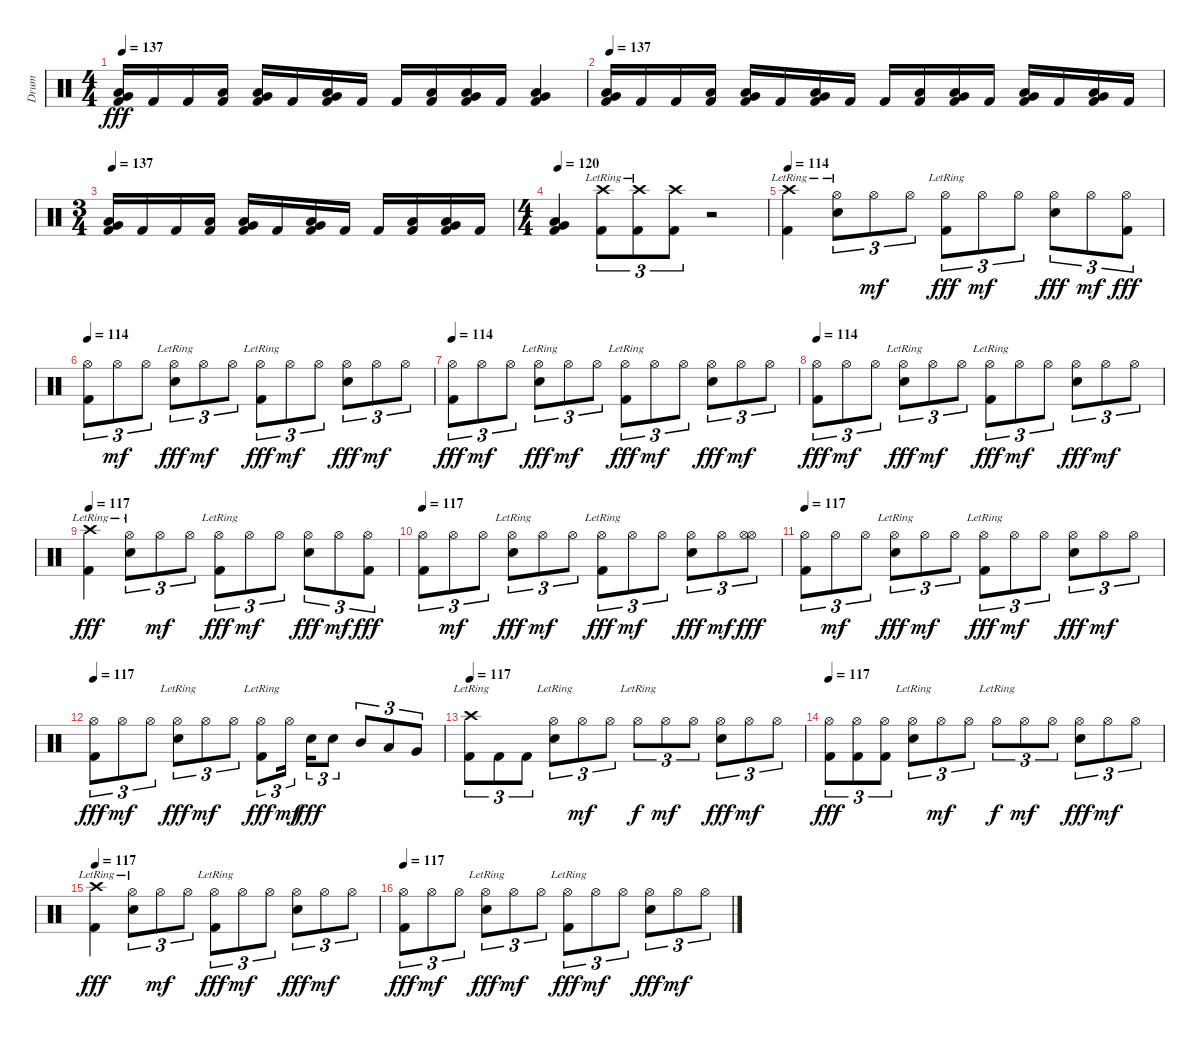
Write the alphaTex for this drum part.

\track ("Drum" "Drum") {instrument percussion}
\staff {score}
\articulation defaults
\ts (4 4)
\tempo 137
\clef neutral
\ks c
("Very Low Tom (hit)" "Low Tom (hit)" "Kick (hit) 2").16{dy fff} "Kick (hit) 2".16 "Kick (hit) 2".16 ("Low Tom (hit)" "Kick (hit) 2").16 ("Very Low Tom (hit)" "Low Tom (hit)" "Kick (hit) 2").16 "Kick (hit) 2".16 ("Very Low Tom (hit)" "Low Tom (hit)" "Kick (hit) 2").16 "Kick (hit) 2".16 "Kick (hit) 2".16 ("Low Tom (hit)" "Kick (hit) 2").16 ("Very Low Tom (hit)" "Low Tom (hit)" "Kick (hit) 2").16 "Kick (hit) 2".16 ("Very Low Tom (hit)" "Low Tom (hit)" "Kick (hit) 2").4 |
\tempo 137
("Very Low Tom (hit)" "Low Tom (hit)" "Kick (hit) 2").16 "Kick (hit) 2".16 "Kick (hit) 2".16 ("Low Tom (hit)" "Kick (hit) 2").16 ("Very Low Tom (hit)" "Low Tom (hit)" "Kick (hit) 2").16 "Kick (hit) 2".16 ("Very Low Tom (hit)" "Low Tom (hit)" "Kick (hit) 2").16 "Kick (hit) 2".16 "Kick (hit) 2".16 ("Low Tom (hit)" "Kick (hit) 2").16 ("Very Low Tom (hit)" "Low Tom (hit)" "Kick (hit) 2").16 "Kick (hit) 2".16 ("Very Low Tom (hit)" "Low Tom (hit)" "Kick (hit) 2").16 "Kick (hit) 2".16 ("Very Low Tom (hit)" "Low Tom (hit)" "Kick (hit) 2").16 "Kick (hit) 2".16 |
\ts (3 4)
\tempo 137
("Very Low Tom (hit)" "Low Tom (hit)" "Kick (hit) 2").16 "Kick (hit) 2".16 "Kick (hit) 2".16 ("Low Tom (hit)" "Kick (hit) 2").16 ("Very Low Tom (hit)" "Low Tom (hit)" "Kick (hit) 2").16 "Kick (hit) 2".16 ("Very Low Tom (hit)" "Low Tom (hit)" "Kick (hit) 2").16 "Kick (hit) 2".16 "Kick (hit) 2".16 ("Low Tom (hit)" "Kick (hit) 2").16 ("Very Low Tom (hit)" "Low Tom (hit)" "Kick (hit) 2").16 "Kick (hit) 2".16 |
\ts (4 4)
\tempo 120
("Very Low Tom (hit)" "Low Tom (hit)" "Kick (hit) 2").4 ("Crash high (hit)"{lr} "Kick (hit) 2").8{tu (3 2)} ("Crash high (hit)"{lr} "Kick (hit) 2").8{tu (3 2)} ("Crash high (hit)" "Kick (hit) 2").8{tu (3 2)} r.2 |
\tempo 114
("Crash high (hit)"{lr} "Kick (hit) 2").4 ("Hi-Hat (open)"{lr} "Electric Snare (hit)").8{tu (3 2)} "Hi-Hat (open)".8{tu (3 2) dy mf} "Hi-Hat (open)".8{tu (3 2)} ("Hi-Hat (open)"{lr} "Kick (hit) 2").8{tu (3 2) dy fff} "Hi-Hat (open)".8{tu (3 2) dy mf} "Hi-Hat (open)".8{tu (3 2)} ("Hi-Hat (open)" "Electric Snare (hit)").8{tu (3 2) dy fff} "Hi-Hat (open)".8{tu (3 2) dy mf} ("Hi-Hat (open)" "Kick (hit) 2").8{tu (3 2) dy fff} |
\tempo 114
("Hi-Hat (open)" "Kick (hit) 2").8{tu (3 2)} "Hi-Hat (open)".8{tu (3 2) dy mf} "Hi-Hat (open)".8{tu (3 2)} ("Hi-Hat (open)"{lr} "Electric Snare (hit)").8{tu (3 2) dy fff} "Hi-Hat (open)".8{tu (3 2) dy mf} "Hi-Hat (open)".8{tu (3 2)} ("Hi-Hat (open)"{lr} "Kick (hit) 2").8{tu (3 2) dy fff} "Hi-Hat (open)".8{tu (3 2) dy mf} "Hi-Hat (open)".8{tu (3 2)} ("Hi-Hat (open)" "Electric Snare (hit)").8{tu (3 2) dy fff} "Hi-Hat (open)".8{tu (3 2) dy mf} "Hi-Hat (open)".8{tu (3 2)} |
\tempo 114
("Hi-Hat (open)" "Kick (hit) 2").8{tu (3 2) dy fff} "Hi-Hat (open)".8{tu (3 2) dy mf} "Hi-Hat (open)".8{tu (3 2)} ("Hi-Hat (open)"{lr} "Electric Snare (hit)").8{tu (3 2) dy fff} "Hi-Hat (open)".8{tu (3 2) dy mf} "Hi-Hat (open)".8{tu (3 2)} ("Hi-Hat (open)"{lr} "Kick (hit) 2").8{tu (3 2) dy fff} "Hi-Hat (open)".8{tu (3 2) dy mf} "Hi-Hat (open)".8{tu (3 2)} ("Hi-Hat (open)" "Electric Snare (hit)").8{tu (3 2) dy fff} "Hi-Hat (open)".8{tu (3 2) dy mf} "Hi-Hat (open)".8{tu (3 2)} |
\tempo 114
("Hi-Hat (open)" "Kick (hit) 2").8{tu (3 2) dy fff} "Hi-Hat (open)".8{tu (3 2) dy mf} "Hi-Hat (open)".8{tu (3 2)} ("Hi-Hat (open)"{lr} "Electric Snare (hit)").8{tu (3 2) dy fff} "Hi-Hat (open)".8{tu (3 2) dy mf} "Hi-Hat (open)".8{tu (3 2)} ("Hi-Hat (open)"{lr} "Kick (hit) 2").8{tu (3 2) dy fff} "Hi-Hat (open)".8{tu (3 2) dy mf} "Hi-Hat (open)".8{tu (3 2)} ("Hi-Hat (open)" "Electric Snare (hit)").8{tu (3 2) dy fff} "Hi-Hat (open)".8{tu (3 2) dy mf} "Hi-Hat (open)".8{tu (3 2)} |
\tempo 117
("Crash high (hit)"{lr} "Kick (hit) 2").4{dy fff} ("Hi-Hat (open)"{lr} "Electric Snare (hit)").8{tu (3 2)} "Hi-Hat (open)".8{tu (3 2) dy mf} "Hi-Hat (open)".8{tu (3 2)} ("Hi-Hat (open)"{lr} "Kick (hit) 2").8{tu (3 2) dy fff} "Hi-Hat (open)".8{tu (3 2) dy mf} "Hi-Hat (open)".8{tu (3 2)} ("Hi-Hat (open)" "Electric Snare (hit)").8{tu (3 2) dy fff} "Hi-Hat (open)".8{tu (3 2) dy mf} ("Hi-Hat (open)" "Kick (hit) 2").8{tu (3 2) dy fff} |
\tempo 117
("Hi-Hat (open)" "Kick (hit) 2").8{tu (3 2)} "Hi-Hat (open)".8{tu (3 2) dy mf} "Hi-Hat (open)".8{tu (3 2)} ("Hi-Hat (open)"{lr} "Electric Snare (hit)").8{tu (3 2) dy fff} "Hi-Hat (open)".8{tu (3 2) dy mf} "Hi-Hat (open)".8{tu (3 2)} ("Hi-Hat (open)"{lr} "Kick (hit) 2").8{tu (3 2) dy fff} "Hi-Hat (open)".8{tu (3 2) dy mf} "Hi-Hat (open)".8{tu (3 2)} ("Hi-Hat (open)" "Electric Snare (hit)").8{tu (3 2) dy fff} "Hi-Hat (open)".8{tu (3 2) dy mf} ("Hi-Hat (open)" "Hi-Hat (open)").8{tu (3 2) dy fff} |
\tempo 117
("Hi-Hat (open)" "Kick (hit) 2").8{tu (3 2)} "Hi-Hat (open)".8{tu (3 2) dy mf} "Hi-Hat (open)".8{tu (3 2)} ("Hi-Hat (open)"{lr} "Electric Snare (hit)").8{tu (3 2) dy fff} "Hi-Hat (open)".8{tu (3 2) dy mf} "Hi-Hat (open)".8{tu (3 2)} ("Hi-Hat (open)"{lr} "Kick (hit) 2").8{tu (3 2) dy fff} "Hi-Hat (open)".8{tu (3 2) dy mf} "Hi-Hat (open)".8{tu (3 2)} ("Hi-Hat (open)" "Electric Snare (hit)").8{tu (3 2) dy fff} "Hi-Hat (open)".8{tu (3 2) dy mf} "Hi-Hat (open)".8{tu (3 2)} |
\tempo 117
("Hi-Hat (open)" "Kick (hit) 2").8{tu (3 2) dy fff} "Hi-Hat (open)".8{tu (3 2) dy mf} "Hi-Hat (open)".8{tu (3 2)} ("Hi-Hat (open)"{lr} "Electric Snare (hit)").8{tu (3 2) dy fff} "Hi-Hat (open)".8{tu (3 2) dy mf} "Hi-Hat (open)".8{tu (3 2)} ("Hi-Hat (open)"{lr} "Kick (hit) 2").8{tu (3 2) dy fff} "Hi-Hat (open)".16{tu (3 2) dy mf} "Electric Snare (hit)".16{tu (3 2) dy fff} "Electric Snare (hit)".8{tu (3 2)} "Mid Tom (hit)".8{tu (3 2)} "Low Tom (hit)".8{tu (3 2)} "Very Low Tom (hit)".8{tu (3 2)} |
\tempo 117
("Crash high (hit)"{lr} "Kick (hit) 2").8{tu (3 2)} "Kick (hit) 2".8{tu (3 2)} "Kick (hit) 2".8{tu (3 2)} ("Hi-Hat (open)"{lr} "Electric Snare (hit)").8{tu (3 2)} "Hi-Hat (open)".8{tu (3 2) dy mf} "Hi-Hat (open)".8{tu (3 2)} "Hi-Hat (open)"{lr}.8{tu (3 2) dy f} "Hi-Hat (open)".8{tu (3 2) dy mf} "Hi-Hat (open)".8{tu (3 2)} ("Hi-Hat (open)" "Electric Snare (hit)").8{tu (3 2) dy fff} "Hi-Hat (open)".8{tu (3 2) dy mf} "Hi-Hat (open)".8{tu (3 2)} |
\tempo 117
("Hi-Hat (open)" "Kick (hit) 2").8{tu (3 2) dy fff} ("Hi-Hat (open)" "Kick (hit) 2").8{tu (3 2)} ("Hi-Hat (open)" "Kick (hit) 2").8{tu (3 2)} ("Hi-Hat (open)"{lr} "Electric Snare (hit)").8{tu (3 2)} "Hi-Hat (open)".8{tu (3 2) dy mf} "Hi-Hat (open)".8{tu (3 2)} "Hi-Hat (open)"{lr}.8{tu (3 2) dy f} "Hi-Hat (open)".8{tu (3 2) dy mf} "Hi-Hat (open)".8{tu (3 2)} ("Hi-Hat (open)" "Electric Snare (hit)").8{tu (3 2) dy fff} "Hi-Hat (open)".8{tu (3 2) dy mf} "Hi-Hat (open)".8{tu (3 2)} |
\tempo 117
("Crash high (hit)"{lr} "Kick (hit) 2").4{dy fff} ("Hi-Hat (open)"{lr} "Electric Snare (hit)").8{tu (3 2)} "Hi-Hat (open)".8{tu (3 2) dy mf} "Hi-Hat (open)".8{tu (3 2)} ("Hi-Hat (open)"{lr} "Kick (hit) 2").8{tu (3 2) dy fff} "Hi-Hat (open)".8{tu (3 2) dy mf} "Hi-Hat (open)".8{tu (3 2)} ("Hi-Hat (open)" "Electric Snare (hit)").8{tu (3 2) dy fff} "Hi-Hat (open)".8{tu (3 2) dy mf} "Hi-Hat (open)".8{tu (3 2)} |
\tempo 117
("Hi-Hat (open)" "Kick (hit) 2").8{tu (3 2) dy fff} "Hi-Hat (open)".8{tu (3 2) dy mf} "Hi-Hat (open)".8{tu (3 2)} ("Hi-Hat (open)"{lr} "Electric Snare (hit)").8{tu (3 2) dy fff} "Hi-Hat (open)".8{tu (3 2) dy mf} "Hi-Hat (open)".8{tu (3 2)} ("Hi-Hat (open)"{lr} "Kick (hit) 2").8{tu (3 2) dy fff} "Hi-Hat (open)".8{tu (3 2) dy mf} "Hi-Hat (open)".8{tu (3 2)} ("Hi-Hat (open)" "Electric Snare (hit)").8{tu (3 2) dy fff} "Hi-Hat (open)".8{tu (3 2) dy mf} "Hi-Hat (open)".8{tu (3 2)}
